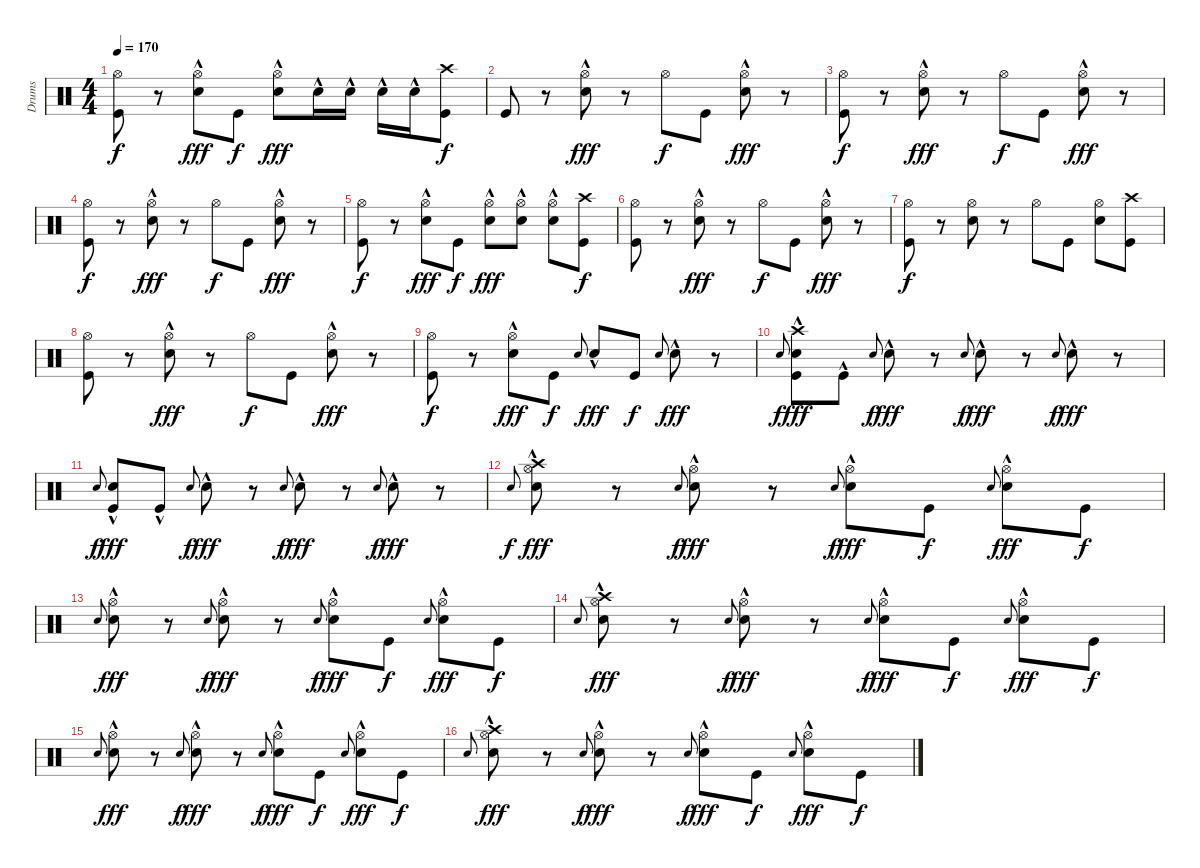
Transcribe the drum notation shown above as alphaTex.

\track ("Drums" "Drums") {instrument percussion}
\staff {score}
\articulation defaults
\ts (4 4)
\tempo 170
\clef neutral
\ks c
("Hi-Hat (open)" "Kick (hit)").8{dy f} r.8 ("Hi-Hat (open)" "Electric Snare (hit)"{hac}).8{dy fff} "Kick (hit)".8{dy f} ("Hi-Hat (open)" "Electric Snare (hit)"{hac}).8{dy fff} "Electric Snare (hit)"{hac}.16 "Electric Snare (hit)"{hac}.16 "Electric Snare (hit)"{hac}.16 "Electric Snare (hit)"{hac}.16 ("Crash high (hit)" "Kick (hit)").8{dy f} |
"Kick (hit)".8 r.8 ("Hi-Hat (open)" "Electric Snare (hit)"{hac}).8{dy fff} r.8 "Hi-Hat (open)".8{dy f} "Kick (hit)".8 ("Hi-Hat (open)" "Electric Snare (hit)"{hac}).8{dy fff} r.8 |
("Hi-Hat (open)" "Kick (hit)").8{dy f} r.8 ("Hi-Hat (open)" "Electric Snare (hit)"{hac}).8{dy fff} r.8 "Hi-Hat (open)".8{dy f} "Kick (hit)".8 ("Hi-Hat (open)" "Electric Snare (hit)"{hac}).8{dy fff} r.8 |
("Hi-Hat (open)" "Kick (hit)").8{dy f} r.8 ("Hi-Hat (open)" "Electric Snare (hit)"{hac}).8{dy fff} r.8 "Hi-Hat (open)".8{dy f} "Kick (hit)".8 ("Hi-Hat (open)" "Electric Snare (hit)"{hac}).8{dy fff} r.8 |
("Hi-Hat (open)" "Kick (hit)").8{dy f} r.8 ("Hi-Hat (open)" "Electric Snare (hit)"{hac}).8{dy fff} "Kick (hit)".8{dy f} ("Hi-Hat (open)" "Electric Snare (hit)"{hac}).8{dy fff} ("Hi-Hat (open)" "Electric Snare (hit)"{hac}).8 ("Hi-Hat (open)" "Electric Snare (hit)"{hac}).8 ("Crash high (hit)" "Kick (hit)").8{dy f} |
("Hi-Hat (open)" "Kick (hit)").8 r.8 ("Hi-Hat (open)" "Electric Snare (hit)"{hac}).8{dy fff} r.8 "Hi-Hat (open)".8{dy f} "Kick (hit)".8 ("Hi-Hat (open)" "Electric Snare (hit)"{hac}).8{dy fff} r.8 |
("Hi-Hat (open)" "Kick (hit)").8{dy f} r.8 ("Hi-Hat (open)" "Electric Snare (hit)").8 r.8 "Hi-Hat (open)".8 "Kick (hit)".8 ("Hi-Hat (open)" "Electric Snare (hit)").8 ("Crash high (hit)" "Kick (hit)").8 |
("Hi-Hat (open)" "Kick (hit)").8 r.8 ("Hi-Hat (open)" "Electric Snare (hit)"{hac}).8{dy fff} r.8 "Hi-Hat (open)".8{dy f} "Kick (hit)".8 ("Hi-Hat (open)" "Electric Snare (hit)"{hac}).8{dy fff} r.8 |
("Hi-Hat (open)" "Kick (hit)").8{dy f} r.8 ("Hi-Hat (open)" "Electric Snare (hit)"{hac}).8{dy fff} "Kick (hit)".8{dy f} "Electric Snare (hit)".8{gr onbeat} "Electric Snare (hit)"{hac}.8{dy fff} "Kick (hit)".8{dy f} "Electric Snare (hit)".8{gr onbeat} "Electric Snare (hit)"{hac}.8{dy fff} r.8 |
"Electric Snare (hit)"{sl}.8{gr onbeat dy f} ("Crash high (hit)"{hac} "Electric Snare (hit)"{hac} "Kick (hit)"{hac}).8{dy fff} "Kick (hit)"{hac}.8 "Electric Snare (hit)"{sl}.8{gr onbeat dy f} "Electric Snare (hit)"{hac}.8{dy fff} r.8 "Electric Snare (hit)"{sl}.8{gr onbeat dy f} "Electric Snare (hit)"{hac}.8{dy fff} r.8 "Electric Snare (hit)"{sl}.8{gr onbeat dy f} "Electric Snare (hit)"{hac}.8{dy fff} r.8 |
"Electric Snare (hit)"{sl}.8{gr onbeat dy f} ("Electric Snare (hit)"{hac} "Kick (hit)"{hac}).8{dy fff} "Kick (hit)"{hac}.8 "Electric Snare (hit)"{sl}.8{gr onbeat dy f} "Electric Snare (hit)"{hac}.8{dy fff} r.8 "Electric Snare (hit)"{sl}.8{gr onbeat dy f} "Electric Snare (hit)"{hac}.8{dy fff} r.8 "Electric Snare (hit)"{sl}.8{gr onbeat dy f} "Electric Snare (hit)"{hac}.8{dy fff} r.8 |
"Electric Snare (hit)"{sl}.8{gr onbeat dy f} ("Crash high (hit)"{hac} "Hi-Hat (open)"{hac} "Electric Snare (hit)"{hac}).8{dy fff} r.8 "Electric Snare (hit)"{sl}.8{gr onbeat dy f} ("Hi-Hat (open)"{hac} "Electric Snare (hit)"{hac}).8{dy fff} r.8 "Electric Snare (hit)"{sl}.8{gr onbeat dy f} ("Hi-Hat (open)"{hac} "Electric Snare (hit)"{hac}).8{dy fff} "Kick (hit)".8{dy f} "Electric Snare (hit)"{sl}.8{gr onbeat} ("Hi-Hat (open)"{hac} "Electric Snare (hit)"{hac}).8{dy fff} "Kick (hit)".8{dy f} |
"Electric Snare (hit)"{sl}.8{gr onbeat} ("Hi-Hat (open)"{hac} "Electric Snare (hit)"{hac}).8{dy fff} r.8 "Electric Snare (hit)"{sl}.8{gr onbeat dy f} ("Hi-Hat (open)"{hac} "Electric Snare (hit)"{hac}).8{dy fff} r.8 "Electric Snare (hit)"{sl}.8{gr onbeat dy f} ("Hi-Hat (open)"{hac} "Electric Snare (hit)"{hac}).8{dy fff} "Kick (hit)".8{dy f} "Electric Snare (hit)"{sl}.8{gr onbeat} ("Hi-Hat (open)"{hac} "Electric Snare (hit)"{hac}).8{dy fff} "Kick (hit)".8{dy f} |
"Electric Snare (hit)"{sl}.8{gr onbeat} ("Crash high (hit)"{hac} "Hi-Hat (open)"{hac} "Electric Snare (hit)"{hac}).8{dy fff} r.8 "Electric Snare (hit)"{sl}.8{gr onbeat dy f} ("Hi-Hat (open)"{hac} "Electric Snare (hit)"{hac}).8{dy fff} r.8 "Electric Snare (hit)"{sl}.8{gr onbeat dy f} ("Hi-Hat (open)"{hac} "Electric Snare (hit)"{hac}).8{dy fff} "Kick (hit)".8{dy f} "Electric Snare (hit)"{sl}.8{gr onbeat} ("Hi-Hat (open)"{hac} "Electric Snare (hit)"{hac}).8{dy fff} "Kick (hit)".8{dy f} |
"Electric Snare (hit)"{sl}.8{gr onbeat} ("Hi-Hat (open)"{hac} "Electric Snare (hit)"{hac}).8{dy fff} r.8 "Electric Snare (hit)"{sl}.8{gr onbeat dy f} ("Hi-Hat (open)"{hac} "Electric Snare (hit)"{hac}).8{dy fff} r.8 "Electric Snare (hit)"{sl}.8{gr onbeat dy f} ("Hi-Hat (open)"{hac} "Electric Snare (hit)"{hac}).8{dy fff} "Kick (hit)".8{dy f} "Electric Snare (hit)"{sl}.8{gr onbeat} ("Hi-Hat (open)"{hac} "Electric Snare (hit)"{hac}).8{dy fff} "Kick (hit)".8{dy f} |
"Electric Snare (hit)"{sl}.8{gr onbeat} ("Crash high (hit)"{hac} "Hi-Hat (open)"{hac} "Electric Snare (hit)"{hac}).8{dy fff} r.8 "Electric Snare (hit)"{sl}.8{gr onbeat dy f} ("Hi-Hat (open)"{hac} "Electric Snare (hit)"{hac}).8{dy fff} r.8 "Electric Snare (hit)"{sl}.8{gr onbeat dy f} ("Hi-Hat (open)"{hac} "Electric Snare (hit)"{hac}).8{dy fff} "Kick (hit)".8{dy f} "Electric Snare (hit)"{sl}.8{gr onbeat} ("Hi-Hat (open)"{hac} "Electric Snare (hit)"{hac}).8{dy fff} "Kick (hit)".8{dy f}
